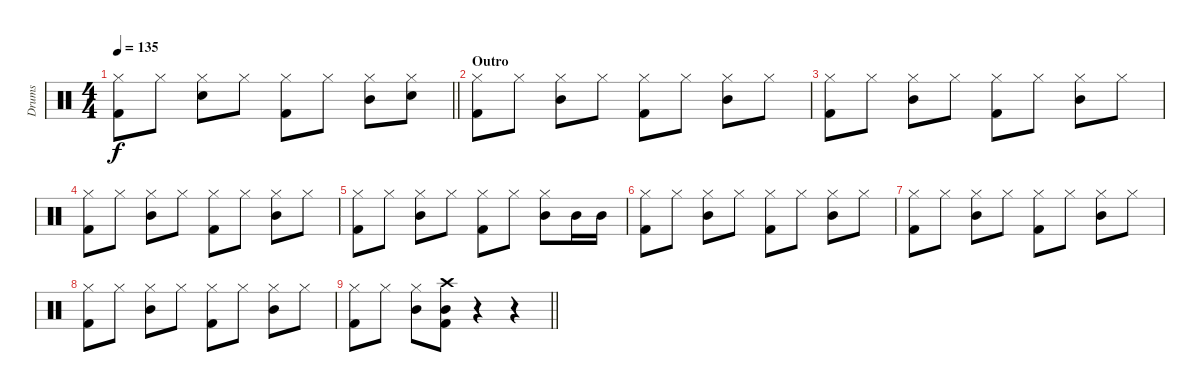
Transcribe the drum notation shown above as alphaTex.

\track ("Drums" "Drums") {instrument percussion}
\staff {score}
\articulation defaults
\ts (4 4)
\tempo 135
\clef neutral
\barLineRight lightlight
\ks c
("Hi-Hat (closed)" "Kick (hit) 2").8{dy f} "Hi-Hat (closed)".8 ("Hi-Hat (closed)" "Snare (hit) 2").8 "Hi-Hat (closed)".8 ("Hi-Hat (closed)" "Kick (hit) 2").8 "Hi-Hat (closed)".8 ("Hi-Hat (closed)" "Mid Tom (hit)").8 ("Hi-Hat (closed)" "Snare (hit) 2").8 |
\section ("" "Outro")
("Hi-Hat (closed)" "Kick (hit) 2").8 "Hi-Hat (closed)".8 ("Hi-Hat (closed)" "Mid Tom (hit)").8 "Hi-Hat (closed)".8 ("Hi-Hat (closed)" "Kick (hit) 2").8 "Hi-Hat (closed)".8 ("Hi-Hat (closed)" "Mid Tom (hit)").8 "Hi-Hat (closed)".8 |
("Hi-Hat (closed)" "Kick (hit) 2").8 "Hi-Hat (closed)".8 ("Hi-Hat (closed)" "Mid Tom (hit)").8 "Hi-Hat (closed)".8 ("Hi-Hat (closed)" "Kick (hit) 2").8 "Hi-Hat (closed)".8 ("Hi-Hat (closed)" "Mid Tom (hit)").8 "Hi-Hat (closed)".8 |
("Hi-Hat (closed)" "Kick (hit) 2").8 "Hi-Hat (closed)".8 ("Hi-Hat (closed)" "Mid Tom (hit)").8 "Hi-Hat (closed)".8 ("Hi-Hat (closed)" "Kick (hit) 2").8 "Hi-Hat (closed)".8 ("Hi-Hat (closed)" "Mid Tom (hit)").8 "Hi-Hat (closed)".8 |
("Hi-Hat (closed)" "Kick (hit) 2").8 "Hi-Hat (closed)".8 ("Hi-Hat (closed)" "Mid Tom (hit)").8 "Hi-Hat (closed)".8 ("Hi-Hat (closed)" "Kick (hit) 2").8 "Hi-Hat (closed)".8 ("Hi-Hat (closed)" "Mid Tom (hit)").8 "Mid Tom (hit)".16 "Mid Tom (hit)".16 |
("Hi-Hat (closed)" "Kick (hit) 2").8 "Hi-Hat (closed)".8 ("Hi-Hat (closed)" "Mid Tom (hit)").8 "Hi-Hat (closed)".8 ("Hi-Hat (closed)" "Kick (hit) 2").8 "Hi-Hat (closed)".8 ("Hi-Hat (closed)" "Mid Tom (hit)").8 "Hi-Hat (closed)".8 |
("Hi-Hat (closed)" "Kick (hit) 2").8 "Hi-Hat (closed)".8 ("Hi-Hat (closed)" "Mid Tom (hit)").8 "Hi-Hat (closed)".8 ("Hi-Hat (closed)" "Kick (hit) 2").8 "Hi-Hat (closed)".8 ("Hi-Hat (closed)" "Mid Tom (hit)").8 "Hi-Hat (closed)".8 |
("Hi-Hat (closed)" "Kick (hit) 2").8 "Hi-Hat (closed)".8 ("Hi-Hat (closed)" "Mid Tom (hit)").8 "Hi-Hat (closed)".8 ("Hi-Hat (closed)" "Kick (hit) 2").8 "Hi-Hat (closed)".8 ("Hi-Hat (closed)" "Mid Tom (hit)").8 "Hi-Hat (closed)".8 |
\barLineRight lightlight
("Hi-Hat (closed)" "Kick (hit) 2").8 "Hi-Hat (closed)".8 ("Hi-Hat (closed)" "Mid Tom (hit)").8 ("Crash high (hit)" "Mid Tom (hit)" "Kick (hit) 2").8 r.4 r.4
